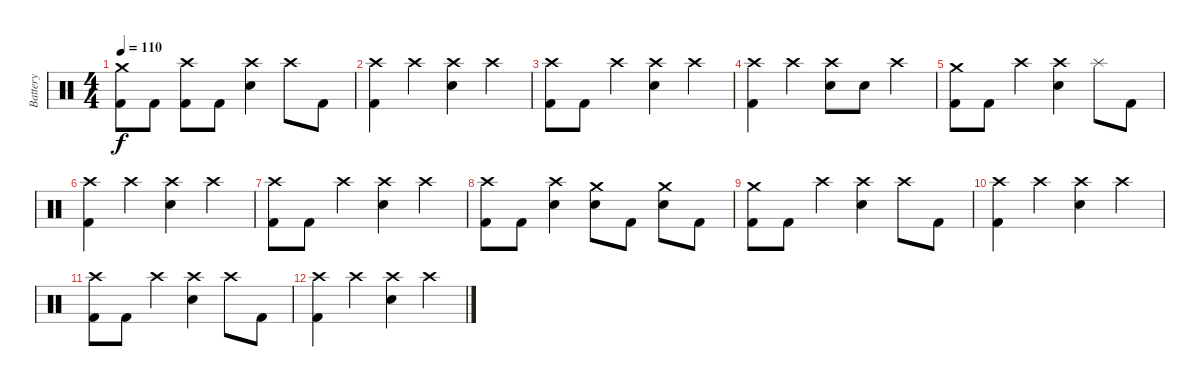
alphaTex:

\track ("Battery" "Battery") {instrument percussion}
\staff {score}
\articulation defaults
\ts (4 4)
\tempo 110
\clef neutral
\ks c
("Crash medium (hit)" "Kick (hit) 2").8{dy f} "Kick (hit) 2".8 ("Crash high (hit)" "Kick (hit) 2").8 "Kick (hit) 2".8 ("Crash high (hit)" "Electric Snare (hit)").4 "Crash high (hit)".8 "Kick (hit) 2".8 |
("Crash high (hit)" "Kick (hit) 2").4 "Crash high (hit)".4 ("Crash high (hit)" "Electric Snare (hit)").4 "Crash high (hit)".4 |
("Crash high (hit)" "Kick (hit) 2").8 "Kick (hit) 2".8 "Crash high (hit)".4 ("Crash high (hit)" "Electric Snare (hit)").4 "Crash high (hit)".4 |
("Crash high (hit)" "Kick (hit) 2").4 "Crash high (hit)".4 ("Crash high (hit)" "Electric Snare (hit)").8 "Electric Snare (hit)".8 "Crash high (hit)".4 |
("Crash medium (hit)" "Kick (hit) 2").8 "Kick (hit) 2".8 "Crash high (hit)".4 ("Crash high (hit)" "Electric Snare (hit)").4 "Splash (hit)".8 "Kick (hit) 2".8 |
("Crash high (hit)" "Kick (hit) 2").4 "Crash high (hit)".4 ("Crash high (hit)" "Electric Snare (hit)").4 "Crash high (hit)".4 |
("Crash high (hit)" "Kick (hit) 2").8 "Kick (hit) 2".8 "Crash high (hit)".4 ("Crash high (hit)" "Electric Snare (hit)").4 "Crash high (hit)".4 |
("Crash high (hit)" "Kick (hit) 2").8 "Kick (hit) 2".8 ("Crash high (hit)" "Electric Snare (hit)").4 ("Crash medium (hit)" "Electric Snare (hit)").8 "Kick (hit) 2".8 ("Crash medium (hit)" "Electric Snare (hit)").8 "Kick (hit) 2".8 |
("Crash medium (hit)" "Kick (hit) 2").8 "Kick (hit) 2".8 "Crash high (hit)".4 ("Crash high (hit)" "Electric Snare (hit)").4 "Crash high (hit)".8 "Kick (hit) 2".8 |
("Crash high (hit)" "Kick (hit) 2").4 "Crash high (hit)".4 ("Crash high (hit)" "Electric Snare (hit)").4 "Crash high (hit)".4 |
("Crash high (hit)" "Kick (hit) 2").8 "Kick (hit) 2".8 "Crash high (hit)".4 ("Crash high (hit)" "Electric Snare (hit)").4 "Crash high (hit)".8 "Kick (hit) 2".8 |
("Crash high (hit)" "Kick (hit) 2").4 "Crash high (hit)".4 ("Crash high (hit)" "Electric Snare (hit)").4 "Crash high (hit)".4
